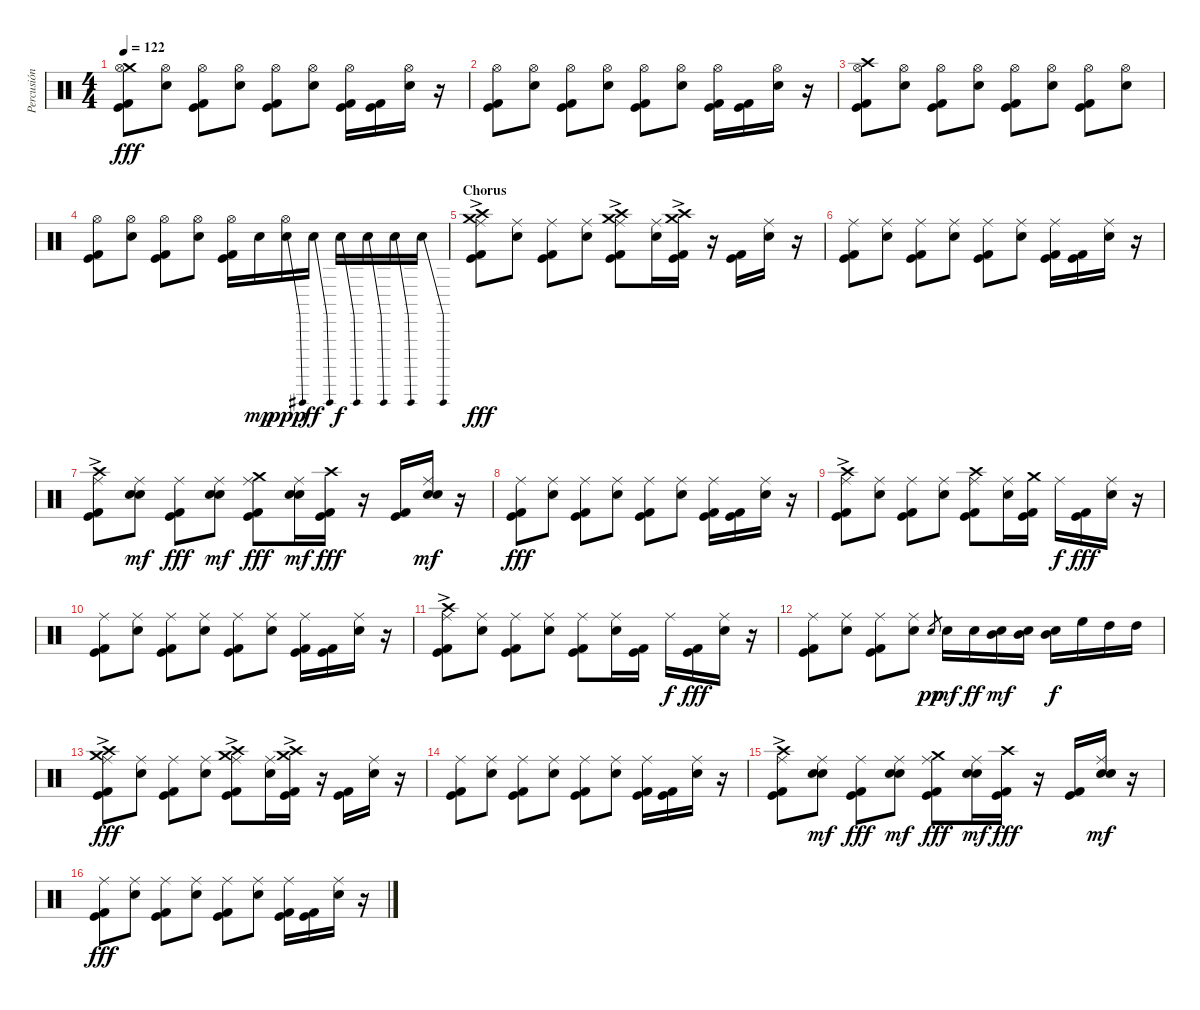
\track ("Percusión" "Percusión") {instrument percussion}
\staff {score}
\articulation defaults
\ts (4 4)
\tempo 122
\clef neutral
\ks c
("Crash medium (hit)" "Hi-Hat (open)" "Kick (hit)" "Kick (hit) 2").8{dy fff} ("Hi-Hat (open)" "Electric Snare (hit)").8 ("Hi-Hat (open)" "Kick (hit)" "Kick (hit) 2").8 ("Hi-Hat (open)" "Electric Snare (hit)").8 ("Hi-Hat (open)" "Kick (hit)" "Kick (hit) 2").8 ("Hi-Hat (open)" "Electric Snare (hit)").8 ("Hi-Hat (open)" "Kick (hit)" "Kick (hit) 2").16 ("Kick (hit)" "Kick (hit) 2").16 ("Hi-Hat (open)" "Electric Snare (hit)").16 r.16 |
("Hi-Hat (open)" "Kick (hit)" "Kick (hit) 2").8 ("Hi-Hat (open)" "Electric Snare (hit)").8 ("Hi-Hat (open)" "Kick (hit)" "Kick (hit) 2").8 ("Hi-Hat (open)" "Electric Snare (hit)").8 ("Hi-Hat (open)" "Kick (hit)" "Kick (hit) 2").8 ("Hi-Hat (open)" "Electric Snare (hit)").8 ("Hi-Hat (open)" "Kick (hit)" "Kick (hit) 2").16 ("Kick (hit)" "Kick (hit) 2").16 ("Hi-Hat (open)" "Electric Snare (hit)").16 r.16 |
("Crash high (hit)" "Hi-Hat (open)" "Kick (hit)" "Kick (hit) 2").8 ("Hi-Hat (open)" "Electric Snare (hit)").8 ("Hi-Hat (open)" "Kick (hit)" "Kick (hit) 2").8 ("Hi-Hat (open)" "Electric Snare (hit)").8 ("Hi-Hat (open)" "Kick (hit)" "Kick (hit) 2").8 ("Hi-Hat (open)" "Electric Snare (hit)").8 ("Hi-Hat (open)" "Kick (hit)" "Kick (hit) 2").8 ("Hi-Hat (open)" "Electric Snare (hit)").8 |
("Hi-Hat (open)" "Kick (hit)" "Kick (hit) 2").8 ("Hi-Hat (open)" "Electric Snare (hit)").8 ("Hi-Hat (open)" "Kick (hit)" "Kick (hit) 2").8 ("Hi-Hat (open)" "Electric Snare (hit)").8 ("Hi-Hat (open)" "Kick (hit)" "Kick (hit) 2").16 "Electric Snare (hit)".16{dy mp} ("Hi-Hat (open)" "Electric Snare (hit)"{be (bend 0 0 60 12)}).16{dy ppp} "Electric Snare (hit)"{be (bend 0 0 60 12)}.16{dy ff} "Electric Snare (hit)"{be (bend 0 0 60 12)}.16{dy f} "Electric Snare (hit)"{be (bend 0 0 60 12)}.16 "Electric Snare (hit)"{be (bend 0 0 60 12)}.16 "Electric Snare (hit)"{be (bend 0 0 60 12)}.16 |
\section ("" "Chorus")
("Crash medium (hit)" "Crash high (hit)"{ac} "Ride (middle)" "Kick (hit)" "Kick (hit) 2").8{dy fff} ("Ride (middle)" "Electric Snare (hit)").8 ("Ride (middle)" "Kick (hit)" "Kick (hit) 2").8 ("Ride (middle)" "Electric Snare (hit)").8 ("Crash high (hit)"{ac} "Crash medium (hit)" "Ride (middle)" "Kick (hit)" "Kick (hit) 2").8 ("Ride (middle)" "Electric Snare (hit)").16 ("Crash medium (hit)"{ac} "Crash high (hit)" "Kick (hit)" "Kick (hit) 2").16 r.16 ("Kick (hit)" "Kick (hit) 2").16 ("Ride (middle)" "Electric Snare (hit)").16 r.16 |
("Ride (middle)" "Kick (hit)" "Kick (hit) 2").8 ("Ride (middle)" "Electric Snare (hit)").8 ("Ride (middle)" "Kick (hit)" "Kick (hit) 2").8 ("Ride (middle)" "Electric Snare (hit)").8 ("Ride (middle)" "Kick (hit)" "Kick (hit) 2").8 ("Ride (middle)" "Electric Snare (hit)").8 ("Ride (middle)" "Kick (hit)" "Kick (hit) 2").16 ("Kick (hit)" "Kick (hit) 2").16 ("Ride (middle)" "Electric Snare (hit)").16 r.16 |
("Crash high (hit)"{ac} "Ride (middle)" "Kick (hit)" "Kick (hit) 2").8 ("Ride (middle)" "Electric Snare (hit)" "Snare (hit) 2").8{dy mf} ("Ride (middle)" "Kick (hit)" "Kick (hit) 2").8{dy fff} ("Ride (middle)" "Electric Snare (hit)" "Snare (hit) 2").8{dy mf} ("Crash medium (hit)" "Ride (middle)" "Kick (hit)" "Kick (hit) 2").8{dy fff} ("Ride (middle)" "Electric Snare (hit)" "Snare (hit) 2").16{dy mf} ("Crash high (hit)" "Kick (hit)" "Kick (hit) 2").16{dy fff} r.16 ("Kick (hit)" "Kick (hit) 2").16 ("Ride (middle)" "Electric Snare (hit)" "Snare (hit) 2").16{dy mf} r.16 |
("Ride (middle)" "Kick (hit)" "Kick (hit) 2").8{dy fff} ("Ride (middle)" "Electric Snare (hit)").8 ("Ride (middle)" "Kick (hit)" "Kick (hit) 2").8 ("Ride (middle)" "Electric Snare (hit)").8 ("Ride (middle)" "Kick (hit)" "Kick (hit) 2").8 ("Ride (middle)" "Electric Snare (hit)").8 ("Ride (middle)" "Kick (hit)" "Kick (hit) 2").16 ("Kick (hit)" "Kick (hit) 2").16 ("Ride (middle)" "Electric Snare (hit)").16 r.16 |
("Crash high (hit)"{ac} "Ride (middle)" "Kick (hit)" "Kick (hit) 2").8 ("Ride (middle)" "Electric Snare (hit)").8 ("Ride (middle)" "Kick (hit)" "Kick (hit) 2").8 ("Ride (middle)" "Electric Snare (hit)").8 ("Crash high (hit)" "Ride (middle)" "Kick (hit)" "Kick (hit) 2").8 ("Ride (middle)" "Electric Snare (hit)").16 ("Crash medium (hit)" "Kick (hit)" "Kick (hit) 2").16 "Ride (middle)".16{dy f} ("Kick (hit)" "Kick (hit) 2").16{dy fff} ("Ride (middle)" "Electric Snare (hit)").16 r.16 |
("Ride (middle)" "Kick (hit)" "Kick (hit) 2").8 ("Ride (middle)" "Electric Snare (hit)").8 ("Ride (middle)" "Kick (hit)" "Kick (hit) 2").8 ("Ride (middle)" "Electric Snare (hit)").8 ("Ride (middle)" "Kick (hit)" "Kick (hit) 2").8 ("Ride (middle)" "Electric Snare (hit)").8 ("Ride (middle)" "Kick (hit)" "Kick (hit) 2").16 ("Kick (hit)" "Kick (hit) 2").16 ("Ride (middle)" "Electric Snare (hit)").16 r.16 |
("Crash high (hit)"{ac} "Ride (middle)" "Kick (hit)" "Kick (hit) 2").8 ("Ride (middle)" "Electric Snare (hit)").8 ("Ride (middle)" "Kick (hit)" "Kick (hit) 2").8 ("Ride (middle)" "Electric Snare (hit)").8 ("Ride (middle)" "Kick (hit)" "Kick (hit) 2").8 ("Ride (middle)" "Electric Snare (hit)").16 ("Kick (hit)" "Kick (hit) 2").16 "Ride (middle)".16{dy f} ("Kick (hit)" "Kick (hit) 2").16{dy fff} ("Ride (middle)" "Electric Snare (hit)").16 r.16 |
("Ride (middle)" "Kick (hit)" "Kick (hit) 2").8 ("Ride (middle)" "Electric Snare (hit)").8 ("Ride (middle)" "Kick (hit)" "Kick (hit) 2").8 ("Ride (middle)" "Electric Snare (hit)").8 "Electric Snare (hit)".8{gr dy pp} "Electric Snare (hit)".16{dy mf} "Electric Snare (hit)".16{dy ff} ("Mid Tom (hit)" "Electric Snare (hit)").16{dy mf} ("Mid Tom (hit)" "Electric Snare (hit)").16 ("Mid Tom (hit)" "Electric Snare (hit)").16{dy f} "High Floor Tom (hit)".16 "High Tom (hit)".16 "High Tom (hit)".16 |
("Crash medium (hit)" "Crash high (hit)"{ac} "Ride (middle)" "Kick (hit)" "Kick (hit) 2").8{dy fff} ("Ride (middle)" "Electric Snare (hit)").8 ("Ride (middle)" "Kick (hit)" "Kick (hit) 2").8 ("Ride (middle)" "Electric Snare (hit)").8 ("Crash high (hit)"{ac} "Crash medium (hit)" "Ride (middle)" "Kick (hit)" "Kick (hit) 2").8 ("Ride (middle)" "Electric Snare (hit)").16 ("Crash medium (hit)"{ac} "Crash high (hit)" "Kick (hit)" "Kick (hit) 2").16 r.16 ("Kick (hit)" "Kick (hit) 2").16 ("Ride (middle)" "Electric Snare (hit)").16 r.16 |
("Ride (middle)" "Kick (hit)" "Kick (hit) 2").8 ("Ride (middle)" "Electric Snare (hit)").8 ("Ride (middle)" "Kick (hit)" "Kick (hit) 2").8 ("Ride (middle)" "Electric Snare (hit)").8 ("Ride (middle)" "Kick (hit)" "Kick (hit) 2").8 ("Ride (middle)" "Electric Snare (hit)").8 ("Ride (middle)" "Kick (hit)" "Kick (hit) 2").16 ("Kick (hit)" "Kick (hit) 2").16 ("Ride (middle)" "Electric Snare (hit)").16 r.16 |
("Crash high (hit)"{ac} "Ride (middle)" "Kick (hit)" "Kick (hit) 2").8 ("Ride (middle)" "Electric Snare (hit)" "Snare (hit) 2").8{dy mf} ("Ride (middle)" "Kick (hit)" "Kick (hit) 2").8{dy fff} ("Ride (middle)" "Electric Snare (hit)" "Snare (hit) 2").8{dy mf} ("Crash medium (hit)" "Ride (middle)" "Kick (hit)" "Kick (hit) 2").8{dy fff} ("Ride (middle)" "Electric Snare (hit)" "Snare (hit) 2").16{dy mf} ("Crash high (hit)" "Kick (hit)" "Kick (hit) 2").16{dy fff} r.16 ("Kick (hit)" "Kick (hit) 2").16 ("Ride (middle)" "Electric Snare (hit)" "Snare (hit) 2").16{dy mf} r.16 |
("Ride (middle)" "Kick (hit)" "Kick (hit) 2").8{dy fff} ("Ride (middle)" "Electric Snare (hit)").8 ("Ride (middle)" "Kick (hit)" "Kick (hit) 2").8 ("Ride (middle)" "Electric Snare (hit)").8 ("Ride (middle)" "Kick (hit)" "Kick (hit) 2").8 ("Ride (middle)" "Electric Snare (hit)").8 ("Ride (middle)" "Kick (hit)" "Kick (hit) 2").16 ("Kick (hit)" "Kick (hit) 2").16 ("Ride (middle)" "Electric Snare (hit)").16 r.16
